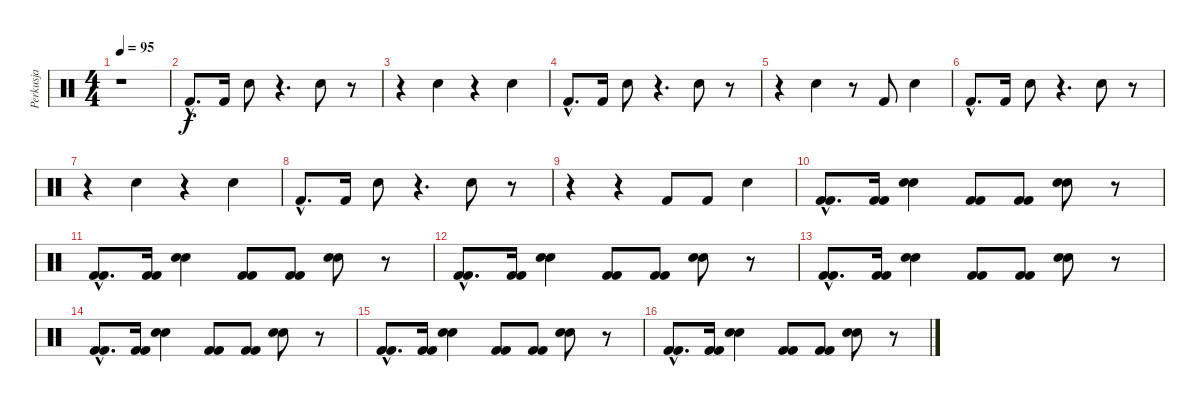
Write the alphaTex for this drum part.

\track ("Perkusja" "Perkusja") {instrument percussion}
\staff {score}
\articulation defaults
\ts (4 4)
\tempo 95
\clef neutral
\ks c
r.1{dy f} |
"Kick (hit) 2"{hac}.8{d} "Kick (hit) 2".16 "Hand Clap (hit)".8 r.4{d} "Hand Clap (hit)".8 r.8 |
r.4 "Hand Clap (hit)".4 r.4 "Hand Clap (hit)".4 |
"Kick (hit) 2"{hac}.8{d} "Kick (hit) 2".16 "Hand Clap (hit)".8 r.4{d} "Hand Clap (hit)".8 r.8 |
r.4 "Hand Clap (hit)".4 r.8 "Kick (hit) 2".8 "Hand Clap (hit)".4 |
"Kick (hit) 2"{hac}.8{d} "Kick (hit) 2".16 "Hand Clap (hit)".8 r.4{d} "Hand Clap (hit)".8 r.8 |
r.4 "Hand Clap (hit)".4 r.4 "Hand Clap (hit)".4 |
"Kick (hit) 2"{hac}.8{d} "Kick (hit) 2".16 "Hand Clap (hit)".8 r.4{d} "Hand Clap (hit)".8 r.8 |
r.4 r.4 "Kick (hit) 2".8 "Kick (hit) 2".8 "Hand Clap (hit)".4 |
("Kick (hit) 2"{hac} "Kick (hit) 2"{hac}).8{d} ("Kick (hit) 2" "Kick (hit) 2").16 ("Electric Snare (hit)" "Hand Clap (hit)").4 ("Kick (hit) 2" "Kick (hit) 2").8 ("Kick (hit) 2" "Kick (hit) 2").8 ("Electric Snare (hit)" "Hand Clap (hit)").8 r.8 |
("Kick (hit) 2"{hac} "Kick (hit) 2"{hac}).8{d} ("Kick (hit) 2" "Kick (hit) 2").16 ("Electric Snare (hit)" "Hand Clap (hit)").4 ("Kick (hit) 2" "Kick (hit) 2").8 ("Kick (hit) 2" "Kick (hit) 2").8 ("Electric Snare (hit)" "Hand Clap (hit)").8 r.8 |
("Kick (hit) 2"{hac} "Kick (hit) 2"{hac}).8{d} ("Kick (hit) 2" "Kick (hit) 2").16 ("Electric Snare (hit)" "Hand Clap (hit)").4 ("Kick (hit) 2" "Kick (hit) 2").8 ("Kick (hit) 2" "Kick (hit) 2").8 ("Electric Snare (hit)" "Hand Clap (hit)").8 r.8 |
("Kick (hit) 2"{hac} "Kick (hit) 2"{hac}).8{d} ("Kick (hit) 2" "Kick (hit) 2").16 ("Electric Snare (hit)" "Hand Clap (hit)").4 ("Kick (hit) 2" "Kick (hit) 2").8 ("Kick (hit) 2" "Kick (hit) 2").8 ("Electric Snare (hit)" "Hand Clap (hit)").8 r.8 |
("Kick (hit) 2"{hac} "Kick (hit) 2"{hac}).8{d} ("Kick (hit) 2" "Kick (hit) 2").16 ("Electric Snare (hit)" "Hand Clap (hit)").4 ("Kick (hit) 2" "Kick (hit) 2").8 ("Kick (hit) 2" "Kick (hit) 2").8 ("Electric Snare (hit)" "Hand Clap (hit)").8 r.8 |
("Kick (hit) 2"{hac} "Kick (hit) 2"{hac}).8{d} ("Kick (hit) 2" "Kick (hit) 2").16 ("Electric Snare (hit)" "Hand Clap (hit)").4 ("Kick (hit) 2" "Kick (hit) 2").8 ("Kick (hit) 2" "Kick (hit) 2").8 ("Electric Snare (hit)" "Hand Clap (hit)").8 r.8 |
("Kick (hit) 2"{hac} "Kick (hit) 2"{hac}).8{d} ("Kick (hit) 2" "Kick (hit) 2").16 ("Electric Snare (hit)" "Hand Clap (hit)").4 ("Kick (hit) 2" "Kick (hit) 2").8 ("Kick (hit) 2" "Kick (hit) 2").8 ("Electric Snare (hit)" "Hand Clap (hit)").8 r.8
